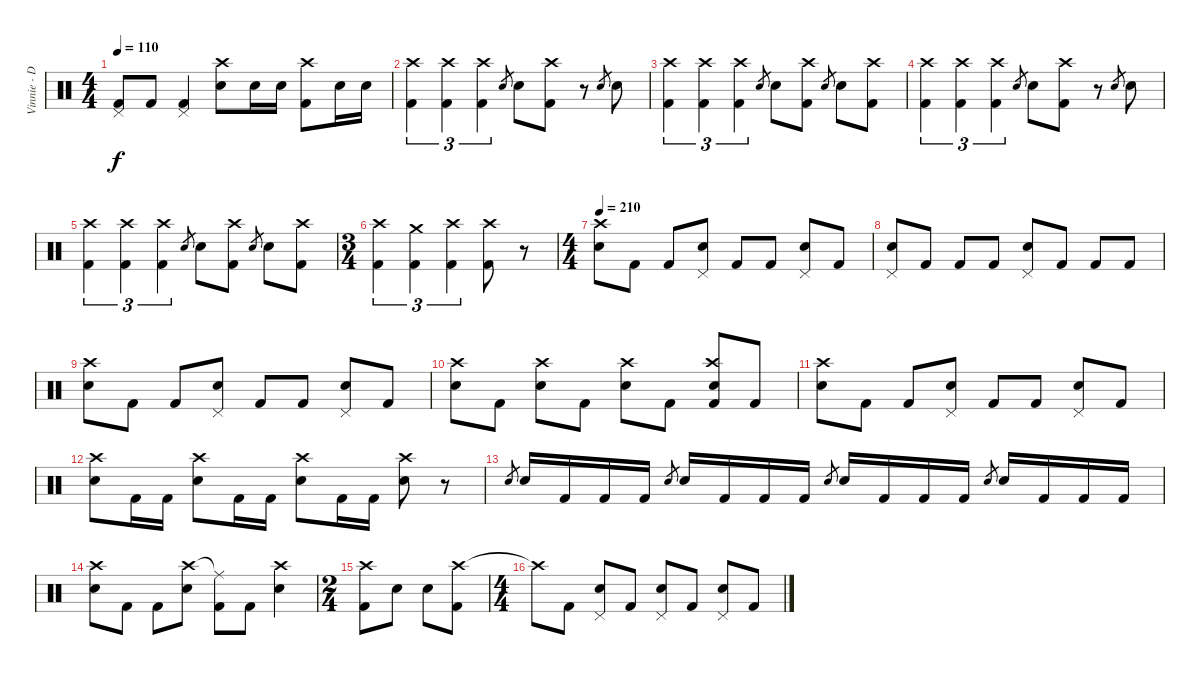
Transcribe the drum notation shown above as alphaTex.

\track ("Vinnie - Drums" "Vinnie - D") {instrument percussion}
\staff {score}
\articulation defaults
\ts (4 4)
\tempo 110
\clef neutral
\ks c
("Pedal Hi-Hat (hit)" "Kick (hit) 2").8{dy f} "Kick (hit) 2".8 ("Pedal Hi-Hat (hit)" "Kick (hit) 2").4 ("Crash high (hit)" "Electric Snare (hit)").8 "Electric Snare (hit)".16 "Electric Snare (hit)".16 ("Crash high (hit)" "Kick (hit) 2").8 "Electric Snare (hit)".16 "Electric Snare (hit)".16 |
("Crash high (hit)" "Kick (hit) 2").4{tu (3 2)} ("Crash high (hit)" "Kick (hit) 2").4{tu (3 2)} ("Crash high (hit)" "Kick (hit) 2").4{tu (3 2)} "Electric Snare (hit)".8{gr} "Electric Snare (hit)".8 ("Crash high (hit)" "Kick (hit) 2").8 r.8 "Electric Snare (hit)".8{gr} "Electric Snare (hit)".8 |
("Crash high (hit)" "Kick (hit) 2").4{tu (3 2)} ("Crash high (hit)" "Kick (hit) 2").4{tu (3 2)} ("Crash high (hit)" "Kick (hit) 2").4{tu (3 2)} "Electric Snare (hit)".8{gr} "Electric Snare (hit)".8 ("Crash high (hit)" "Kick (hit) 2").8 "Electric Snare (hit)".8{gr} "Electric Snare (hit)".8 ("Crash high (hit)" "Kick (hit) 2").8 |
("Crash high (hit)" "Kick (hit) 2").4{tu (3 2)} ("Crash high (hit)" "Kick (hit) 2").4{tu (3 2)} ("Crash high (hit)" "Kick (hit) 2").4{tu (3 2)} "Electric Snare (hit)".8{gr} "Electric Snare (hit)".8 ("Crash high (hit)" "Kick (hit) 2").8 r.8 "Electric Snare (hit)".8{gr} "Electric Snare (hit)".8 |
("Crash high (hit)" "Kick (hit) 2").4{tu (3 2)} ("Crash high (hit)" "Kick (hit) 2").4{tu (3 2)} ("Crash high (hit)" "Kick (hit) 2").4{tu (3 2)} "Electric Snare (hit)".8{gr} "Electric Snare (hit)".8 ("Crash high (hit)" "Kick (hit) 2").8 "Electric Snare (hit)".8{gr} "Electric Snare (hit)".8 ("Crash high (hit)" "Kick (hit) 2").8 |
\ts (3 4)
("Crash high (hit)" "Kick (hit) 2").4{tu (3 2)} ("Crash medium (hit)" "Kick (hit) 2").4{tu (3 2)} ("Crash high (hit)" "Kick (hit) 2").4{tu (3 2)} ("Crash high (hit)" "Kick (hit) 2").8 r.8 |
\ts (4 4)
\tempo 210
("Crash high (hit)" "Electric Snare (hit)").8 "Kick (hit) 2".8 "Kick (hit) 2".8 ("Pedal Hi-Hat (hit)" "Electric Snare (hit)").8 "Kick (hit) 2".8 "Kick (hit) 2".8 ("Pedal Hi-Hat (hit)" "Electric Snare (hit)").8 "Kick (hit) 2".8 |
("Pedal Hi-Hat (hit)" "Electric Snare (hit)").8 "Kick (hit) 2".8 "Kick (hit) 2".8 "Kick (hit) 2".8 ("Pedal Hi-Hat (hit)" "Electric Snare (hit)").8 "Kick (hit) 2".8 "Kick (hit) 2".8 "Kick (hit) 2".8 |
("Crash high (hit)" "Electric Snare (hit)").8 "Kick (hit) 2".8 "Kick (hit) 2".8 ("Pedal Hi-Hat (hit)" "Electric Snare (hit)").8 "Kick (hit) 2".8 "Kick (hit) 2".8 ("Pedal Hi-Hat (hit)" "Electric Snare (hit)").8 "Kick (hit) 2".8 |
("Crash high (hit)" "Electric Snare (hit)").8 "Kick (hit) 2".8 ("Crash high (hit)" "Electric Snare (hit)").8 "Kick (hit) 2".8 ("Crash high (hit)" "Electric Snare (hit)").8 "Kick (hit) 2".8 ("Crash high (hit)" "Electric Snare (hit)" "Kick (hit) 2").8 "Kick (hit) 2".8 |
("Crash high (hit)" "Electric Snare (hit)").8 "Kick (hit) 2".8 "Kick (hit) 2".8 ("Pedal Hi-Hat (hit)" "Electric Snare (hit)").8 "Kick (hit) 2".8 "Kick (hit) 2".8 ("Pedal Hi-Hat (hit)" "Electric Snare (hit)").8 "Kick (hit) 2".8 |
("Crash high (hit)" "Electric Snare (hit)").8 "Kick (hit) 2".16 "Kick (hit) 2".16 ("Crash high (hit)" "Electric Snare (hit)").8 "Kick (hit) 2".16 "Kick (hit) 2".16 ("Crash high (hit)" "Electric Snare (hit)").8 "Kick (hit) 2".16 "Kick (hit) 2".16 ("Crash high (hit)" "Electric Snare (hit)").8 r.8 |
"Electric Snare (hit)".8{gr} "Electric Snare (hit)".16 "Kick (hit) 2".16 "Kick (hit) 2".16 "Kick (hit) 2".16 "Electric Snare (hit)".8{gr} "Electric Snare (hit)".16 "Kick (hit) 2".16 "Kick (hit) 2".16 "Kick (hit) 2".16 "Electric Snare (hit)".8{gr} "Electric Snare (hit)".16 "Kick (hit) 2".16 "Kick (hit) 2".16 "Kick (hit) 2".16 "Electric Snare (hit)".8{gr} "Electric Snare (hit)".16 "Kick (hit) 2".16 "Kick (hit) 2".16 "Kick (hit) 2".16 |
("Crash high (hit)" "Electric Snare (hit)").8 "Kick (hit) 2".8 "Kick (hit) 2".8 ("Crash high (hit)" "Electric Snare (hit)").8 ("Ride (middle)"{t} "Kick (hit) 2").8 "Kick (hit) 2".8 ("Crash high (hit)" "Electric Snare (hit)").4 |
\ts (2 4)
("Crash high (hit)" "Kick (hit) 2").8 "Electric Snare (hit)".8 "Electric Snare (hit)".8 ("Crash high (hit)" "Kick (hit) 2").8 |
\ts (4 4)
"Crash high (hit)"{t}.8 "Kick (hit) 2".8 ("Pedal Hi-Hat (hit)" "Electric Snare (hit)").8 "Kick (hit) 2".8 ("Pedal Hi-Hat (hit)" "Electric Snare (hit)").8 "Kick (hit) 2".8 ("Pedal Hi-Hat (hit)" "Electric Snare (hit)").8 "Kick (hit) 2".8
